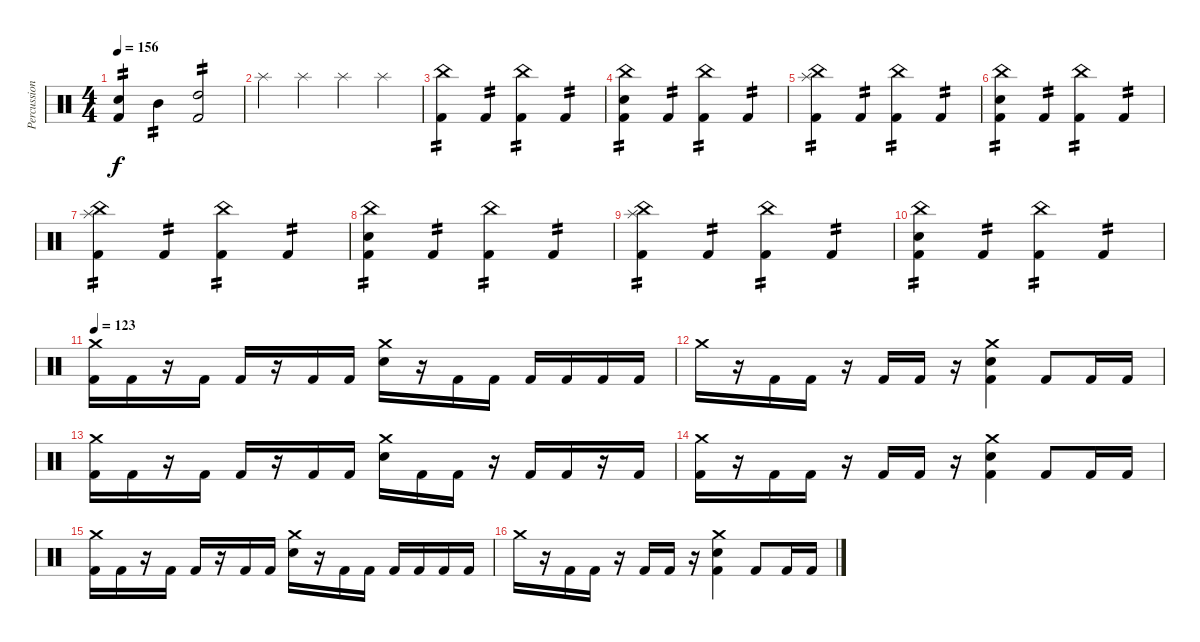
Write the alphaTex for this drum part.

\track ("Percussion" "Percussion") {instrument percussion}
\staff {score}
\articulation defaults
\ts (4 4)
\tempo 156
\clef neutral
\ks c
("Snare (hit) 2" "Kick (hit) 2").4{tp 2 dy f} "Mid Tom (hit)".4{tp 2} ("High Tom (hit)" "Kick (hit) 2").2{tp 2} |
"Splash (hit)".4 "Splash (hit)".4 "Splash (hit)".4 "Splash (hit)".4 |
("China (hit)" "Kick (hit) 2").4{tp 2} "Kick (hit) 2".4{tp 2} ("China (hit)" "Kick (hit) 2").4{tp 2} "Kick (hit) 2".4{tp 2} |
("China (hit)" "Snare (hit) 2" "Kick (hit) 2").4{tp 2} "Kick (hit) 2".4{tp 2} ("China (hit)" "Kick (hit) 2").4{tp 2} "Kick (hit) 2".4{tp 2} |
("China (hit)" "Splash (hit)" "Kick (hit) 2").4{tp 2} "Kick (hit) 2".4{tp 2} ("China (hit)" "Kick (hit) 2").4{tp 2} "Kick (hit) 2".4{tp 2} |
("China (hit)" "Snare (hit) 2" "Kick (hit) 2").4{tp 2} "Kick (hit) 2".4{tp 2} ("China (hit)" "Kick (hit) 2").4{tp 2} "Kick (hit) 2".4{tp 2} |
("China (hit)" "Splash (hit)" "Kick (hit) 2").4{tp 2} "Kick (hit) 2".4{tp 2} ("China (hit)" "Kick (hit) 2").4{tp 2} "Kick (hit) 2".4{tp 2} |
("China (hit)" "Snare (hit) 2" "Kick (hit) 2").4{tp 2} "Kick (hit) 2".4{tp 2} ("China (hit)" "Kick (hit) 2").4{tp 2} "Kick (hit) 2".4{tp 2} |
("China (hit)" "Splash (hit)" "Kick (hit) 2").4{tp 2} "Kick (hit) 2".4{tp 2} ("China (hit)" "Kick (hit) 2").4{tp 2} "Kick (hit) 2".4{tp 2} |
("China (hit)" "Snare (hit) 2" "Kick (hit) 2").4{tp 2} "Kick (hit) 2".4{tp 2} ("China (hit)" "Kick (hit) 2").4{tp 2} "Kick (hit) 2".4{tp 2} |
\tempo 123
("Crash medium (hit)" "Kick (hit) 2").16 "Kick (hit) 2".16 r.16 "Kick (hit) 2".16 "Kick (hit) 2".16 r.16 "Kick (hit) 2".16 "Kick (hit) 2".16 ("Crash medium (hit)" "Snare (hit) 2").16 r.16 "Kick (hit) 2".16 "Kick (hit) 2".16 "Kick (hit) 2".16 "Kick (hit) 2".16 "Kick (hit) 2".16 "Kick (hit) 2".16 |
"Crash medium (hit)".16 r.16 "Kick (hit) 2".16 "Kick (hit) 2".16 r.16 "Kick (hit) 2".16 "Kick (hit) 2".16 r.16 ("Crash medium (hit)" "Snare (hit) 2" "Kick (hit) 2").4 "Kick (hit) 2".8 "Kick (hit) 2".16 "Kick (hit) 2".16 |
("Crash medium (hit)" "Kick (hit) 2").16 "Kick (hit) 2".16 r.16 "Kick (hit) 2".16 "Kick (hit) 2".16 r.16 "Kick (hit) 2".16 "Kick (hit) 2".16 ("Crash medium (hit)" "Snare (hit) 2").16 "Kick (hit) 2".16 "Kick (hit) 2".16 r.16 "Kick (hit) 2".16 "Kick (hit) 2".16 r.16 "Kick (hit) 2".16 |
("Crash medium (hit)" "Kick (hit) 2").16 r.16 "Kick (hit) 2".16 "Kick (hit) 2".16 r.16 "Kick (hit) 2".16 "Kick (hit) 2".16 r.16 ("Crash medium (hit)" "Snare (hit) 2" "Kick (hit) 2").4 "Kick (hit) 2".8 "Kick (hit) 2".16 "Kick (hit) 2".16 |
("Crash medium (hit)" "Kick (hit) 2").16 "Kick (hit) 2".16 r.16 "Kick (hit) 2".16 "Kick (hit) 2".16 r.16 "Kick (hit) 2".16 "Kick (hit) 2".16 ("Crash medium (hit)" "Snare (hit) 2").16 r.16 "Kick (hit) 2".16 "Kick (hit) 2".16 "Kick (hit) 2".16 "Kick (hit) 2".16 "Kick (hit) 2".16 "Kick (hit) 2".16 |
"Crash medium (hit)".16 r.16 "Kick (hit) 2".16 "Kick (hit) 2".16 r.16 "Kick (hit) 2".16 "Kick (hit) 2".16 r.16 ("Crash medium (hit)" "Snare (hit) 2" "Kick (hit) 2").4 "Kick (hit) 2".8 "Kick (hit) 2".16 "Kick (hit) 2".16
